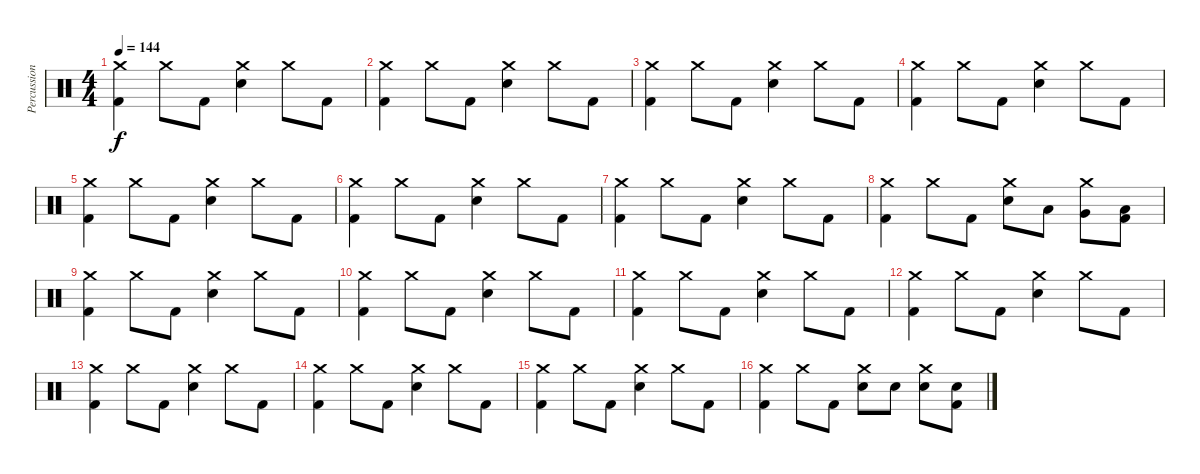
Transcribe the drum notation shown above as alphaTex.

\track ("Percussion" "Percussion") {instrument percussion}
\staff {score}
\articulation defaults
\ts (4 4)
\tempo 144
\clef neutral
\ks c
("Crash medium (hit)" "Kick (hit) 2").4{dy f} "Crash medium (hit)".8 "Kick (hit) 2".8 ("Crash medium (hit)" "Electric Snare (hit)").4 "Crash medium (hit)".8 "Kick (hit) 2".8 |
("Crash medium (hit)" "Kick (hit) 2").4 "Crash medium (hit)".8 "Kick (hit) 2".8 ("Crash medium (hit)" "Electric Snare (hit)").4 "Crash medium (hit)".8 "Kick (hit) 2".8 |
("Crash medium (hit)" "Kick (hit) 2").4 "Crash medium (hit)".8 "Kick (hit) 2".8 ("Crash medium (hit)" "Electric Snare (hit)").4 "Crash medium (hit)".8 "Kick (hit) 2".8 |
("Crash medium (hit)" "Kick (hit) 2").4 "Crash medium (hit)".8 "Kick (hit) 2".8 ("Crash medium (hit)" "Electric Snare (hit)").4 "Crash medium (hit)".8 "Kick (hit) 2".8 |
("Crash medium (hit)" "Kick (hit) 2").4 "Crash medium (hit)".8 "Kick (hit) 2".8 ("Crash medium (hit)" "Electric Snare (hit)").4 "Crash medium (hit)".8 "Kick (hit) 2".8 |
("Crash medium (hit)" "Kick (hit) 2").4 "Crash medium (hit)".8 "Kick (hit) 2".8 ("Crash medium (hit)" "Electric Snare (hit)").4 "Crash medium (hit)".8 "Kick (hit) 2".8 |
("Crash medium (hit)" "Kick (hit) 2").4 "Crash medium (hit)".8 "Kick (hit) 2".8 ("Crash medium (hit)" "Electric Snare (hit)").4 "Crash medium (hit)".8 "Kick (hit) 2".8 |
("Crash medium (hit)" "Kick (hit) 2").4 "Crash medium (hit)".8 "Kick (hit) 2".8 ("Crash medium (hit)" "Electric Snare (hit)").8 "Low Tom (hit)".8 ("Crash medium (hit)" "Very Low Tom (hit)").8 ("Low Floor Tom (hit)" "Kick (hit) 2").8 |
("Crash medium (hit)" "Kick (hit) 2").4 "Crash medium (hit)".8 "Kick (hit) 2".8 ("Crash medium (hit)" "Electric Snare (hit)").4 "Crash medium (hit)".8 "Kick (hit) 2".8 |
("Crash medium (hit)" "Kick (hit) 2").4 "Crash medium (hit)".8 "Kick (hit) 2".8 ("Crash medium (hit)" "Electric Snare (hit)").4 "Crash medium (hit)".8 "Kick (hit) 2".8 |
("Crash medium (hit)" "Kick (hit) 2").4 "Crash medium (hit)".8 "Kick (hit) 2".8 ("Crash medium (hit)" "Electric Snare (hit)").4 "Crash medium (hit)".8 "Kick (hit) 2".8 |
("Crash medium (hit)" "Kick (hit) 2").4 "Crash medium (hit)".8 "Kick (hit) 2".8 ("Crash medium (hit)" "Electric Snare (hit)").4 "Crash medium (hit)".8 "Kick (hit) 2".8 |
("Crash medium (hit)" "Kick (hit) 2").4 "Crash medium (hit)".8 "Kick (hit) 2".8 ("Crash medium (hit)" "Electric Snare (hit)").4 "Crash medium (hit)".8 "Kick (hit) 2".8 |
("Crash medium (hit)" "Kick (hit) 2").4 "Crash medium (hit)".8 "Kick (hit) 2".8 ("Crash medium (hit)" "Electric Snare (hit)").4 "Crash medium (hit)".8 "Kick (hit) 2".8 |
("Crash medium (hit)" "Kick (hit) 2").4 "Crash medium (hit)".8 "Kick (hit) 2".8 ("Crash medium (hit)" "Electric Snare (hit)").4 "Crash medium (hit)".8 "Kick (hit) 2".8 |
("Crash medium (hit)" "Kick (hit) 2").4 "Crash medium (hit)".8 "Kick (hit) 2".8 ("Crash medium (hit)" "Electric Snare (hit)").8 "Electric Snare (hit)".8 ("Crash medium (hit)" "Electric Snare (hit)").8 ("Electric Snare (hit)" "Kick (hit) 2").8
